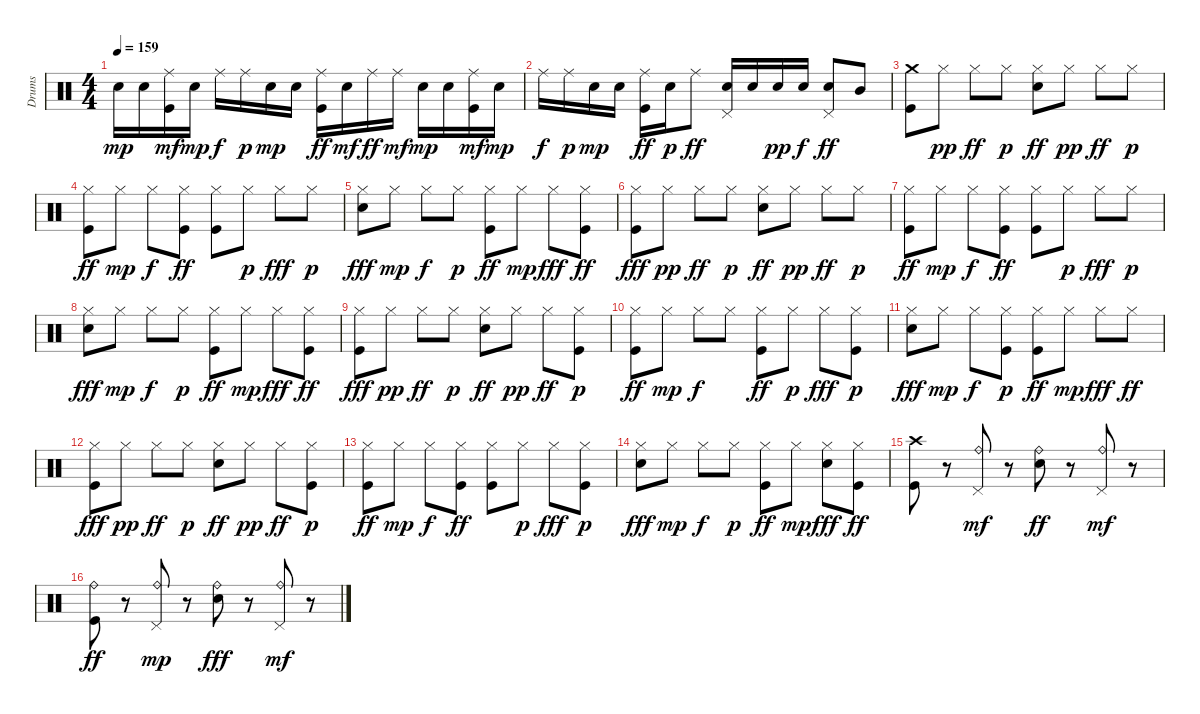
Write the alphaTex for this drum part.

\track ("Drums" "Drums") {instrument percussion}
\staff {score}
\articulation defaults
\ts (4 4)
\tempo 159
\clef neutral
\ks c "Snare (hit) 2".16{dy mp} "Snare (hit) 2".16
("Kick (hit)" "Ride (middle)").16{dy mf} "Snare (hit) 2".16{dy mp} "Ride (middle)".16{dy f} "Ride (middle)".16{dy p} "Snare (hit) 2".16{dy mp} "Snare (hit) 2".16 ("Kick (hit)" "Ride (middle)").16{dy ff} "Snare (hit) 2".16{dy mf} "Ride (middle)".16{dy ff} "Ride (middle)".16{dy mf} "Snare (hit) 2".16{dy mp} "Snare (hit) 2".16 ("Kick (hit)" "Ride (middle)").16{dy mf} "Snare (hit) 2".16{dy mp} |
"Ride (middle)".16{dy f} "Ride (middle)".16{dy p} "Snare (hit) 2".16{dy mp} "Snare (hit) 2".16 ("Kick (hit)" "Ride (middle)").16{dy ff} "Snare (hit) 2".16{dy p} "Ride (middle)".8{dy ff} ("Electric Snare (hit)" "Pedal Hi-Hat (hit)").16 "Electric Snare (hit)".16 "Snare (hit) 2".16{dy pp} "Electric Snare (hit)".16{dy f} ("Electric Snare (hit)" "Pedal Hi-Hat (hit)").8{dy ff} "Mid Tom (hit)".8 |
("Kick (hit)" "Crash medium (hit)").8 "Hi-Hat (closed)".8{dy pp} "Hi-Hat (closed)".8{dy ff} "Hi-Hat (closed)".8{dy p} ("Electric Snare (hit)" "Hi-Hat (closed)").8{dy ff} "Hi-Hat (closed)".8{dy pp} "Hi-Hat (closed)".8{dy ff} "Hi-Hat (closed)".8{dy p} |
("Kick (hit)" "Hi-Hat (closed)").8{dy ff} "Hi-Hat (closed)".8{dy mp} "Hi-Hat (closed)".8{dy f} ("Kick (hit)" "Hi-Hat (closed)").8{dy ff} ("Kick (hit)" "Hi-Hat (closed)").8 "Hi-Hat (closed)".8{dy p} "Hi-Hat (closed)".8{dy fff} "Hi-Hat (closed)".8{dy p} |
("Electric Snare (hit)" "Hi-Hat (closed)").8{dy fff} "Hi-Hat (closed)".8{dy mp} "Hi-Hat (closed)".8{dy f} "Hi-Hat (closed)".8{dy p} ("Kick (hit)" "Hi-Hat (closed)").8{dy ff} "Hi-Hat (closed)".8{dy mp} "Hi-Hat (closed)".8{dy fff} ("Kick (hit)" "Hi-Hat (closed)").8{dy ff} |
("Kick (hit)" "Hi-Hat (closed)").8{dy fff} "Hi-Hat (closed)".8{dy pp} "Hi-Hat (closed)".8{dy ff} "Hi-Hat (closed)".8{dy p} ("Electric Snare (hit)" "Hi-Hat (closed)").8{dy ff} "Hi-Hat (closed)".8{dy pp} "Hi-Hat (closed)".8{dy ff} "Hi-Hat (closed)".8{dy p} |
("Kick (hit)" "Hi-Hat (closed)").8{dy ff} "Hi-Hat (closed)".8{dy mp} "Hi-Hat (closed)".8{dy f} ("Kick (hit)" "Hi-Hat (closed)").8{dy ff} ("Kick (hit)" "Hi-Hat (closed)").8 "Hi-Hat (closed)".8{dy p} "Hi-Hat (closed)".8{dy fff} "Hi-Hat (closed)".8{dy p} |
("Electric Snare (hit)" "Hi-Hat (closed)").8{dy fff} "Hi-Hat (closed)".8{dy mp} "Hi-Hat (closed)".8{dy f} "Hi-Hat (closed)".8{dy p} ("Kick (hit)" "Hi-Hat (closed)").8{dy ff} "Hi-Hat (closed)".8{dy mp} "Hi-Hat (closed)".8{dy fff} ("Kick (hit)" "Hi-Hat (closed)").8{dy ff} |
("Kick (hit)" "Hi-Hat (closed)").8{dy fff} "Hi-Hat (closed)".8{dy pp} "Hi-Hat (closed)".8{dy ff} "Hi-Hat (closed)".8{dy p} ("Electric Snare (hit)" "Hi-Hat (closed)").8{dy ff} "Hi-Hat (closed)".8{dy pp} "Hi-Hat (closed)".8{dy ff} ("Kick (hit)" "Hi-Hat (closed)").8{dy p} |
("Kick (hit)" "Hi-Hat (closed)").8{dy ff} "Hi-Hat (closed)".8{dy mp} "Hi-Hat (closed)".8{dy f} "Hi-Hat (closed)".8 ("Kick (hit)" "Hi-Hat (closed)").8{dy ff} "Hi-Hat (closed)".8{dy p} "Hi-Hat (closed)".8{dy fff} ("Kick (hit)" "Hi-Hat (closed)").8{dy p} |
("Electric Snare (hit)" "Hi-Hat (closed)").8{dy fff} "Hi-Hat (closed)".8{dy mp} "Hi-Hat (closed)".8{dy f} ("Kick (hit)" "Hi-Hat (closed)").8{dy p} ("Kick (hit)" "Hi-Hat (closed)").8{dy ff} "Hi-Hat (closed)".8{dy mp} "Hi-Hat (closed)".8{dy fff} "Hi-Hat (closed)".8{dy ff} |
("Kick (hit)" "Hi-Hat (closed)").8{dy fff} "Hi-Hat (closed)".8{dy pp} "Hi-Hat (closed)".8{dy ff} "Hi-Hat (closed)".8{dy p} ("Electric Snare (hit)" "Hi-Hat (closed)").8{dy ff} "Hi-Hat (closed)".8{dy pp} "Hi-Hat (closed)".8{dy ff} ("Kick (hit)" "Hi-Hat (closed)").8{dy p} |
("Kick (hit)" "Hi-Hat (closed)").8{dy ff} "Hi-Hat (closed)".8{dy mp} "Hi-Hat (closed)".8{dy f} ("Kick (hit)" "Hi-Hat (closed)").8{dy ff} ("Kick (hit)" "Hi-Hat (closed)").8 "Hi-Hat (closed)".8{dy p} "Hi-Hat (closed)".8{dy fff} ("Kick (hit)" "Hi-Hat (closed)").8{dy p} |
("Electric Snare (hit)" "Hi-Hat (closed)").8{dy fff} "Hi-Hat (closed)".8{dy mp} "Hi-Hat (closed)".8{dy f} "Hi-Hat (closed)".8{dy p} ("Kick (hit)" "Hi-Hat (closed)").8{dy ff} "Hi-Hat (closed)".8{dy mp} ("Electric Snare (hit)" "Hi-Hat (closed)").8{dy fff} ("Kick (hit)" "Hi-Hat (closed)").8{dy ff} |
("Kick (hit)" "Crash high (hit)").8 r.8 ("Pedal Hi-Hat (hit)" "Ride (bell)").8{dy mf} r.8 ("Electric Snare (hit)" "Ride (bell)").8{dy ff} r.8 ("Pedal Hi-Hat (hit)" "Ride (bell)").8{dy mf} r.8 |
("Kick (hit)" "Ride (bell)").8{dy ff} r.8 ("Pedal Hi-Hat (hit)" "Ride (bell)").8{dy mp} r.8 ("Electric Snare (hit)" "Ride (bell)").8{dy fff} r.8 ("Pedal Hi-Hat (hit)" "Ride (bell)").8{dy mf} r.8
